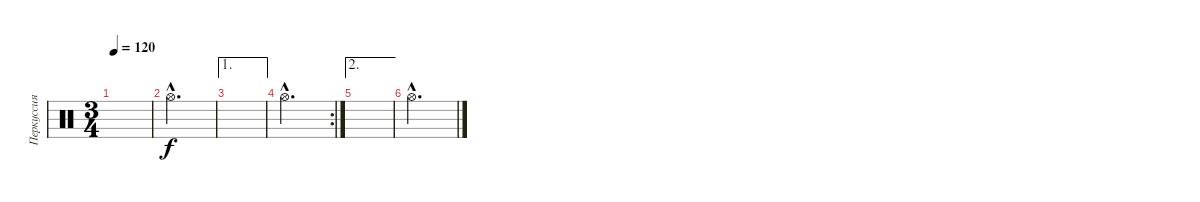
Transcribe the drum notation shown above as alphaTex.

\track ("Перкуссия" "Перкуссия") {instrument percussion}
\staff {score}
\articulation defaults
\ts (3 4)
\tempo 120
\clef neutral
\ks c
|
"Hi-Hat (open)"{hac}.2{d} |
\ae 1
|
\rc 2 "Hi-Hat (open)"{hac}.2{d}
|
\ae 2
|
"Hi-Hat (open)"{hac}.2{d}
